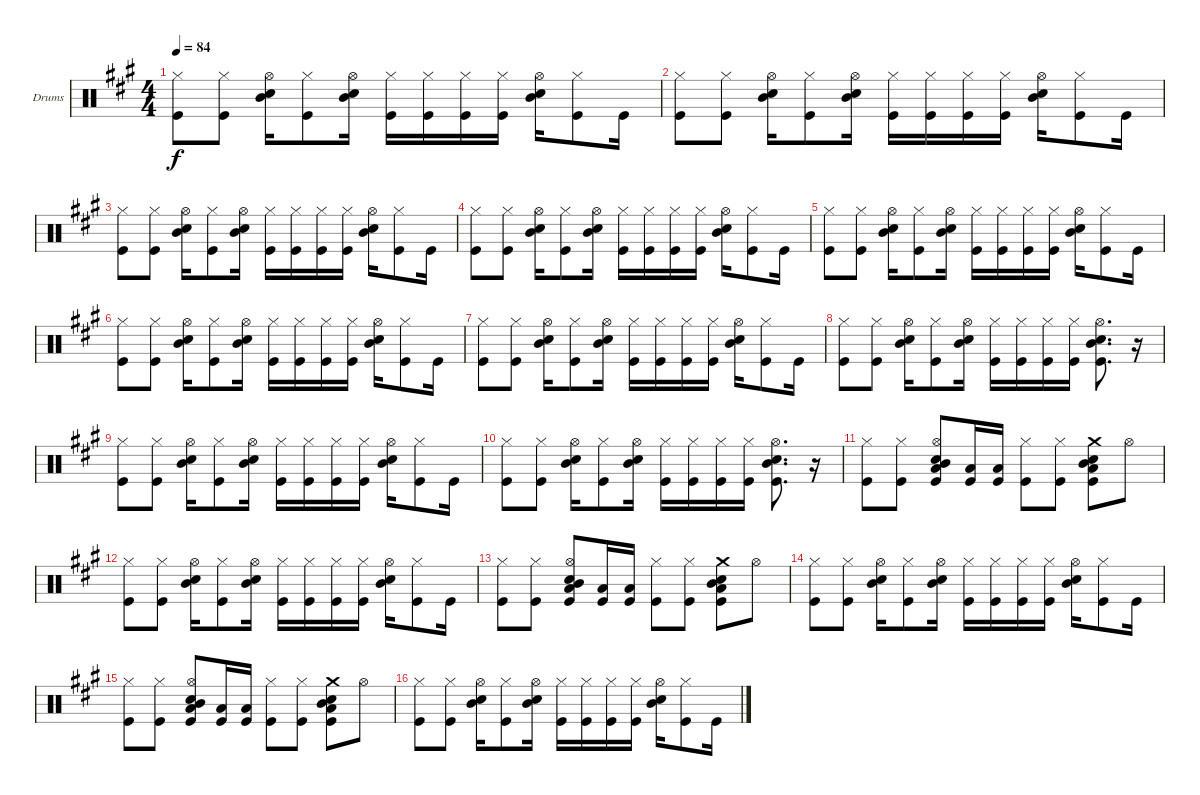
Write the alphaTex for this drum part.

\defaultSystemsLayout 4
\bracketExtendMode groupsimilarinstruments
\firstSystemTrackNameOrientation horizontal
\otherSystemsTrackNameOrientation horizontal
\track ("Drumkit" "Drums") {instrument percussion}
\staff {score}
\articulation defaults
\ts (4 4)
\tempo 84
\clef neutral
\ks a
("Kick (hit)" "Hi-Hat (closed)").8{dy f} ("Kick (hit)" "Hi-Hat (closed)").8 ("Snare (hit) 2" "Mid Tom (hit)" "Hi-Hat (open)").16 ("Kick (hit)" "Hi-Hat (closed)").8 ("Snare (hit) 2" "Mid Tom (hit)" "Hi-Hat (open)").16 ("Kick (hit)" "Hi-Hat (closed)").16 ("Kick (hit)" "Hi-Hat (closed)").16 ("Kick (hit)" "Hi-Hat (closed)").16 ("Kick (hit)" "Hi-Hat (closed)").16 ("Snare (hit) 2" "Mid Tom (hit)" "Hi-Hat (open)").16 ("Kick (hit)" "Hi-Hat (closed)").8 "Kick (hit)".16 |
("Kick (hit)" "Hi-Hat (closed)").8 ("Kick (hit)" "Hi-Hat (closed)").8 ("Snare (hit) 2" "Mid Tom (hit)" "Hi-Hat (open)").16 ("Kick (hit)" "Hi-Hat (closed)").8 ("Snare (hit) 2" "Mid Tom (hit)" "Hi-Hat (open)").16 ("Kick (hit)" "Hi-Hat (closed)").16 ("Kick (hit)" "Hi-Hat (closed)").16 ("Kick (hit)" "Hi-Hat (closed)").16 ("Kick (hit)" "Hi-Hat (closed)").16 ("Snare (hit) 2" "Mid Tom (hit)" "Hi-Hat (open)").16 ("Kick (hit)" "Hi-Hat (closed)").8 "Kick (hit)".16 |
("Kick (hit)" "Hi-Hat (closed)").8 ("Kick (hit)" "Hi-Hat (closed)").8 ("Snare (hit) 2" "Mid Tom (hit)" "Hi-Hat (open)").16 ("Kick (hit)" "Hi-Hat (closed)").8 ("Snare (hit) 2" "Mid Tom (hit)" "Hi-Hat (open)").16 ("Kick (hit)" "Hi-Hat (closed)").16 ("Kick (hit)" "Hi-Hat (closed)").16 ("Kick (hit)" "Hi-Hat (closed)").16 ("Kick (hit)" "Hi-Hat (closed)").16 ("Snare (hit) 2" "Mid Tom (hit)" "Hi-Hat (open)").16 ("Kick (hit)" "Hi-Hat (closed)").8 "Kick (hit)".16 |
("Kick (hit)" "Hi-Hat (closed)").8 ("Kick (hit)" "Hi-Hat (closed)").8 ("Snare (hit) 2" "Mid Tom (hit)" "Hi-Hat (open)").16 ("Kick (hit)" "Hi-Hat (closed)").8 ("Snare (hit) 2" "Mid Tom (hit)" "Hi-Hat (open)").16 ("Kick (hit)" "Hi-Hat (closed)").16 ("Kick (hit)" "Hi-Hat (closed)").16 ("Kick (hit)" "Hi-Hat (closed)").16 ("Kick (hit)" "Hi-Hat (closed)").16 ("Snare (hit) 2" "Mid Tom (hit)" "Hi-Hat (open)").16 ("Kick (hit)" "Hi-Hat (closed)").8 "Kick (hit)".16 |
("Kick (hit)" "Hi-Hat (closed)").8 ("Kick (hit)" "Hi-Hat (closed)").8 ("Snare (hit) 2" "Mid Tom (hit)" "Hi-Hat (open)").16 ("Kick (hit)" "Hi-Hat (closed)").8 ("Snare (hit) 2" "Mid Tom (hit)" "Hi-Hat (open)").16 ("Kick (hit)" "Hi-Hat (closed)").16 ("Kick (hit)" "Hi-Hat (closed)").16 ("Kick (hit)" "Hi-Hat (closed)").16 ("Kick (hit)" "Hi-Hat (closed)").16 ("Snare (hit) 2" "Mid Tom (hit)" "Hi-Hat (open)").16 ("Kick (hit)" "Hi-Hat (closed)").8 "Kick (hit)".16 |
("Kick (hit)" "Hi-Hat (closed)").8 ("Kick (hit)" "Hi-Hat (closed)").8 ("Snare (hit) 2" "Mid Tom (hit)" "Hi-Hat (open)").16 ("Kick (hit)" "Hi-Hat (closed)").8 ("Snare (hit) 2" "Mid Tom (hit)" "Hi-Hat (open)").16 ("Kick (hit)" "Hi-Hat (closed)").16 ("Kick (hit)" "Hi-Hat (closed)").16 ("Kick (hit)" "Hi-Hat (closed)").16 ("Kick (hit)" "Hi-Hat (closed)").16 ("Snare (hit) 2" "Mid Tom (hit)" "Hi-Hat (open)").16 ("Kick (hit)" "Hi-Hat (closed)").8 "Kick (hit)".16 |
("Kick (hit)" "Hi-Hat (closed)").8 ("Kick (hit)" "Hi-Hat (closed)").8 ("Snare (hit) 2" "Mid Tom (hit)" "Hi-Hat (open)").16 ("Kick (hit)" "Hi-Hat (closed)").8 ("Snare (hit) 2" "Mid Tom (hit)" "Hi-Hat (open)").16 ("Kick (hit)" "Hi-Hat (closed)").16 ("Kick (hit)" "Hi-Hat (closed)").16 ("Kick (hit)" "Hi-Hat (closed)").16 ("Kick (hit)" "Hi-Hat (closed)").16 ("Snare (hit) 2" "Mid Tom (hit)" "Hi-Hat (open)").16 ("Kick (hit)" "Hi-Hat (closed)").8 "Kick (hit)".16 |
("Kick (hit)" "Hi-Hat (closed)").8 ("Kick (hit)" "Hi-Hat (closed)").8 ("Snare (hit) 2" "Mid Tom (hit)" "Hi-Hat (open)").16 ("Kick (hit)" "Hi-Hat (closed)").8 ("Snare (hit) 2" "Mid Tom (hit)" "Hi-Hat (open)").16 ("Kick (hit)" "Hi-Hat (closed)").16 ("Kick (hit)" "Hi-Hat (closed)").16 ("Kick (hit)" "Hi-Hat (closed)").16 ("Kick (hit)" "Hi-Hat (closed)").16 ("Snare (hit) 2" "Mid Tom (hit)" "Hi-Hat (open)" "Kick (hit)").8{d} r.16 |
("Kick (hit)" "Hi-Hat (closed)").8 ("Kick (hit)" "Hi-Hat (closed)").8 ("Snare (hit) 2" "Mid Tom (hit)" "Hi-Hat (open)").16 ("Kick (hit)" "Hi-Hat (closed)").8 ("Snare (hit) 2" "Mid Tom (hit)" "Hi-Hat (open)").16 ("Kick (hit)" "Hi-Hat (closed)").16 ("Kick (hit)" "Hi-Hat (closed)").16 ("Kick (hit)" "Hi-Hat (closed)").16 ("Kick (hit)" "Hi-Hat (closed)").16 ("Snare (hit) 2" "Mid Tom (hit)" "Hi-Hat (open)").16 ("Kick (hit)" "Hi-Hat (closed)").8 "Kick (hit)".16 |
("Kick (hit)" "Hi-Hat (closed)").8 ("Kick (hit)" "Hi-Hat (closed)").8 ("Snare (hit) 2" "Mid Tom (hit)" "Hi-Hat (open)").16 ("Kick (hit)" "Hi-Hat (closed)").8 ("Snare (hit) 2" "Mid Tom (hit)" "Hi-Hat (open)").16 ("Kick (hit)" "Hi-Hat (closed)").16 ("Kick (hit)" "Hi-Hat (closed)").16 ("Kick (hit)" "Hi-Hat (closed)").16 ("Kick (hit)" "Hi-Hat (closed)").16 ("Snare (hit) 2" "Mid Tom (hit)" "Hi-Hat (open)" "Kick (hit)").8{d} r.16 |
("Hi-Hat (closed)" "Kick (hit)").8 ("Hi-Hat (closed)" "Kick (hit)").8 ("Snare (hit) 2" "Mid Tom (hit)" "Hi-Hat (open)" "Low Tom (hit)" "Kick (hit)").8 ("Low Tom (hit)" "Kick (hit)").16 ("Low Tom (hit)" "Kick (hit)").16 ("Hi-Hat (closed)" "Kick (hit)").8 ("Hi-Hat (closed)" "Kick (hit)").8 ("Snare (hit) 2" "Mid Tom (hit)" "Crash medium (hit)" "Low Tom (hit)" "Kick (hit)").8 "Hi-Hat (open)".8 |
("Kick (hit)" "Hi-Hat (closed)").8 ("Kick (hit)" "Hi-Hat (closed)").8 ("Snare (hit) 2" "Mid Tom (hit)" "Hi-Hat (open)").16 ("Kick (hit)" "Hi-Hat (closed)").8 ("Snare (hit) 2" "Mid Tom (hit)" "Hi-Hat (open)").16 ("Kick (hit)" "Hi-Hat (closed)").16 ("Kick (hit)" "Hi-Hat (closed)").16 ("Kick (hit)" "Hi-Hat (closed)").16 ("Kick (hit)" "Hi-Hat (closed)").16 ("Snare (hit) 2" "Mid Tom (hit)" "Hi-Hat (open)").16 ("Kick (hit)" "Hi-Hat (closed)").8 "Kick (hit)".16 |
("Hi-Hat (closed)" "Kick (hit)").8 ("Hi-Hat (closed)" "Kick (hit)").8 ("Snare (hit) 2" "Mid Tom (hit)" "Hi-Hat (open)" "Low Tom (hit)" "Kick (hit)").8 ("Low Tom (hit)" "Kick (hit)").16 ("Low Tom (hit)" "Kick (hit)").16 ("Hi-Hat (closed)" "Kick (hit)").8 ("Hi-Hat (closed)" "Kick (hit)").8 ("Snare (hit) 2" "Mid Tom (hit)" "Crash medium (hit)" "Low Tom (hit)" "Kick (hit)").8 "Hi-Hat (open)".8 |
("Kick (hit)" "Hi-Hat (closed)").8 ("Kick (hit)" "Hi-Hat (closed)").8 ("Snare (hit) 2" "Mid Tom (hit)" "Hi-Hat (open)").16 ("Kick (hit)" "Hi-Hat (closed)").8 ("Snare (hit) 2" "Mid Tom (hit)" "Hi-Hat (open)").16 ("Kick (hit)" "Hi-Hat (closed)").16 ("Kick (hit)" "Hi-Hat (closed)").16 ("Kick (hit)" "Hi-Hat (closed)").16 ("Kick (hit)" "Hi-Hat (closed)").16 ("Snare (hit) 2" "Mid Tom (hit)" "Hi-Hat (open)").16 ("Kick (hit)" "Hi-Hat (closed)").8 "Kick (hit)".16 |
("Hi-Hat (closed)" "Kick (hit)").8 ("Hi-Hat (closed)" "Kick (hit)").8 ("Snare (hit) 2" "Mid Tom (hit)" "Hi-Hat (open)" "Low Tom (hit)" "Kick (hit)").8 ("Low Tom (hit)" "Kick (hit)").16 ("Low Tom (hit)" "Kick (hit)").16 ("Hi-Hat (closed)" "Kick (hit)").8 ("Hi-Hat (closed)" "Kick (hit)").8 ("Snare (hit) 2" "Mid Tom (hit)" "Crash medium (hit)" "Low Tom (hit)" "Kick (hit)").8 "Hi-Hat (open)".8 |
("Kick (hit)" "Hi-Hat (closed)").8 ("Kick (hit)" "Hi-Hat (closed)").8 ("Snare (hit) 2" "Mid Tom (hit)" "Hi-Hat (open)").16 ("Kick (hit)" "Hi-Hat (closed)").8 ("Snare (hit) 2" "Mid Tom (hit)" "Hi-Hat (open)").16 ("Kick (hit)" "Hi-Hat (closed)").16 ("Kick (hit)" "Hi-Hat (closed)").16 ("Kick (hit)" "Hi-Hat (closed)").16 ("Kick (hit)" "Hi-Hat (closed)").16 ("Snare (hit) 2" "Mid Tom (hit)" "Hi-Hat (open)").16 ("Kick (hit)" "Hi-Hat (closed)").8 "Kick (hit)".16
